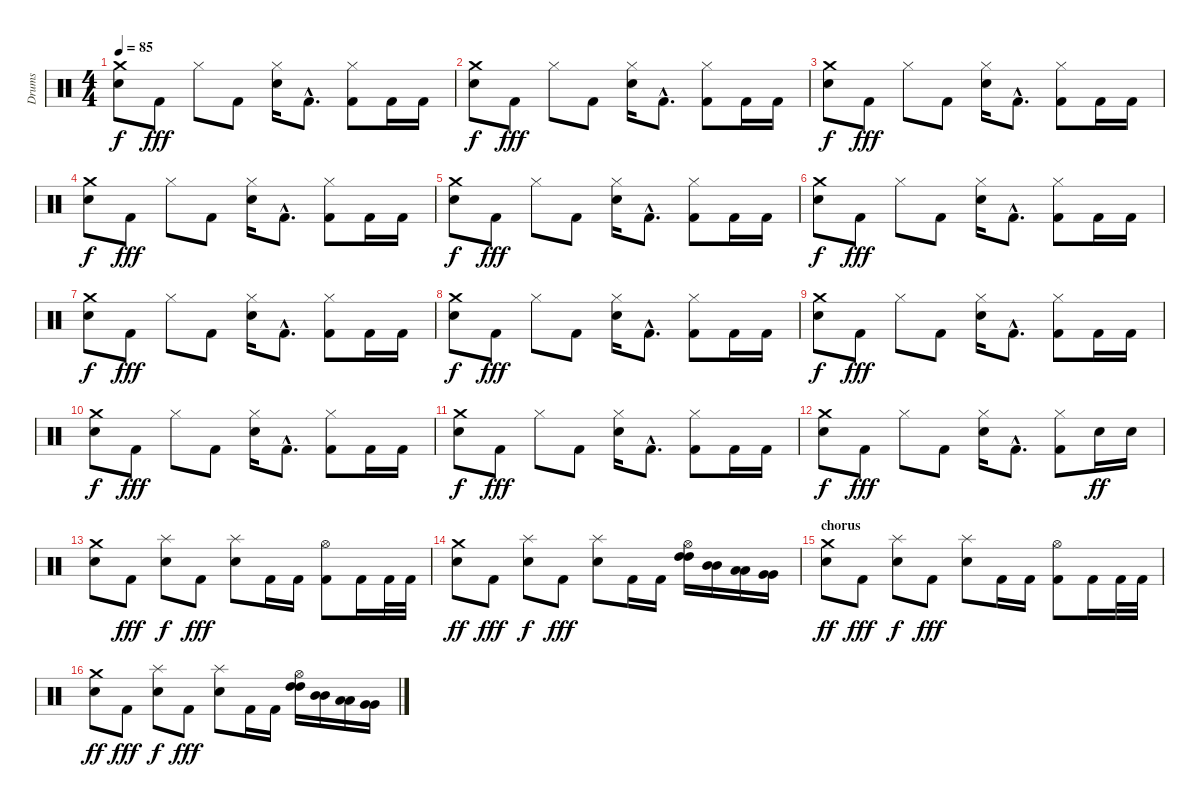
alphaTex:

\track ("Drums" "Drums") {instrument percussion}
\staff {score}
\articulation defaults
\ts (4 4)
\tempo 85
\clef neutral
\ks c
("Crash medium (hit)" "Electric Snare (hit)").8{dy f} "Kick (hit) 2".8{dy fff} "Hi-Hat (closed)".8 "Kick (hit) 2".8 ("Hi-Hat (closed)" "Electric Snare (hit)").16 "Kick (hit) 2"{hac}.8{d} ("Hi-Hat (closed)" "Kick (hit) 2").8 "Kick (hit) 2".16 "Kick (hit) 2".16 |
("Crash medium (hit)" "Electric Snare (hit)").8{dy f} "Kick (hit) 2".8{dy fff} "Hi-Hat (closed)".8 "Kick (hit) 2".8 ("Hi-Hat (closed)" "Electric Snare (hit)").16 "Kick (hit) 2"{hac}.8{d} ("Hi-Hat (closed)" "Kick (hit) 2").8 "Kick (hit) 2".16 "Kick (hit) 2".16 |
("Crash medium (hit)" "Electric Snare (hit)").8{dy f} "Kick (hit) 2".8{dy fff} "Hi-Hat (closed)".8 "Kick (hit) 2".8 ("Hi-Hat (closed)" "Electric Snare (hit)").16 "Kick (hit) 2"{hac}.8{d} ("Hi-Hat (closed)" "Kick (hit) 2").8 "Kick (hit) 2".16 "Kick (hit) 2".16 |
("Crash medium (hit)" "Electric Snare (hit)").8{dy f} "Kick (hit) 2".8{dy fff} "Hi-Hat (closed)".8 "Kick (hit) 2".8 ("Hi-Hat (closed)" "Electric Snare (hit)").16 "Kick (hit) 2"{hac}.8{d} ("Hi-Hat (closed)" "Kick (hit) 2").8 "Kick (hit) 2".16 "Kick (hit) 2".16 |
("Crash medium (hit)" "Electric Snare (hit)").8{dy f} "Kick (hit) 2".8{dy fff} "Hi-Hat (closed)".8 "Kick (hit) 2".8 ("Hi-Hat (closed)" "Electric Snare (hit)").16 "Kick (hit) 2"{hac}.8{d} ("Hi-Hat (closed)" "Kick (hit) 2").8 "Kick (hit) 2".16 "Kick (hit) 2".16 |
("Crash medium (hit)" "Electric Snare (hit)").8{dy f} "Kick (hit) 2".8{dy fff} "Hi-Hat (closed)".8 "Kick (hit) 2".8 ("Hi-Hat (closed)" "Electric Snare (hit)").16 "Kick (hit) 2"{hac}.8{d} ("Hi-Hat (closed)" "Kick (hit) 2").8 "Kick (hit) 2".16 "Kick (hit) 2".16 |
("Crash medium (hit)" "Electric Snare (hit)").8{dy f} "Kick (hit) 2".8{dy fff} "Hi-Hat (closed)".8 "Kick (hit) 2".8 ("Hi-Hat (closed)" "Electric Snare (hit)").16 "Kick (hit) 2"{hac}.8{d} ("Hi-Hat (closed)" "Kick (hit) 2").8 "Kick (hit) 2".16 "Kick (hit) 2".16 |
("Crash medium (hit)" "Electric Snare (hit)").8{dy f} "Kick (hit) 2".8{dy fff} "Hi-Hat (closed)".8 "Kick (hit) 2".8 ("Hi-Hat (closed)" "Electric Snare (hit)").16 "Kick (hit) 2"{hac}.8{d} ("Hi-Hat (closed)" "Kick (hit) 2").8 "Kick (hit) 2".16 "Kick (hit) 2".16 |
("Crash medium (hit)" "Electric Snare (hit)").8{dy f} "Kick (hit) 2".8{dy fff} "Hi-Hat (closed)".8 "Kick (hit) 2".8 ("Hi-Hat (closed)" "Electric Snare (hit)").16 "Kick (hit) 2"{hac}.8{d} ("Hi-Hat (closed)" "Kick (hit) 2").8 "Kick (hit) 2".16 "Kick (hit) 2".16 |
("Crash medium (hit)" "Electric Snare (hit)").8{dy f} "Kick (hit) 2".8{dy fff} "Hi-Hat (closed)".8 "Kick (hit) 2".8 ("Hi-Hat (closed)" "Electric Snare (hit)").16 "Kick (hit) 2"{hac}.8{d} ("Hi-Hat (closed)" "Kick (hit) 2").8 "Kick (hit) 2".16 "Kick (hit) 2".16 |
("Crash medium (hit)" "Electric Snare (hit)").8{dy f} "Kick (hit) 2".8{dy fff} "Hi-Hat (closed)".8 "Kick (hit) 2".8 ("Hi-Hat (closed)" "Electric Snare (hit)").16 "Kick (hit) 2"{hac}.8{d} ("Hi-Hat (closed)" "Kick (hit) 2").8 "Kick (hit) 2".16 "Kick (hit) 2".16 |
("Crash medium (hit)" "Electric Snare (hit)").8{dy f} "Kick (hit) 2".8{dy fff} "Hi-Hat (closed)".8 "Kick (hit) 2".8 ("Hi-Hat (closed)" "Electric Snare (hit)").16 "Kick (hit) 2"{hac}.8{d} ("Hi-Hat (closed)" "Kick (hit) 2").8 "Electric Snare (hit)".16{dy ff} "Electric Snare (hit)".16 |
("Electric Snare (hit)" "Crash medium (hit)").8 "Kick (hit) 2".8{dy fff} ("Splash (hit)" "Snare (hit) 2").8{dy f} "Kick (hit) 2".8{dy fff} ("Splash (hit)" "Electric Snare (hit)").8 "Kick (hit) 2".16 "Kick (hit) 2".16 ("Hi-Hat (open)" "Kick (hit) 2").8 "Kick (hit) 2".16 "Kick (hit) 2".32 "Kick (hit) 2".32 |
("Electric Snare (hit)" "Crash medium (hit)").8{dy ff} "Kick (hit) 2".8{dy fff} ("Splash (hit)" "Snare (hit) 2").8{dy f} "Kick (hit) 2".8{dy fff} ("Splash (hit)" "Electric Snare (hit)").8 "Kick (hit) 2".16 "Kick (hit) 2".16 ("Hi-Hat (open)" "High Tom (hit)" "High Tom (hit)").16 ("Mid Tom (hit)" "Mid Tom (hit)").16 ("Low Tom (hit)" "Low Tom (hit)").16 ("Very Low Tom (hit)" "Very Low Tom (hit)").16 |
\section ("" "chorus")
("Electric Snare (hit)" "Crash medium (hit)").8{dy ff} "Kick (hit) 2".8{dy fff} ("Splash (hit)" "Snare (hit) 2").8{dy f} "Kick (hit) 2".8{dy fff} ("Splash (hit)" "Electric Snare (hit)").8 "Kick (hit) 2".16 "Kick (hit) 2".16 ("Hi-Hat (open)" "Kick (hit) 2").8 "Kick (hit) 2".16 "Kick (hit) 2".32 "Kick (hit) 2".32 |
("Electric Snare (hit)" "Crash medium (hit)").8{dy ff} "Kick (hit) 2".8{dy fff} ("Splash (hit)" "Snare (hit) 2").8{dy f} "Kick (hit) 2".8{dy fff} ("Splash (hit)" "Electric Snare (hit)").8 "Kick (hit) 2".16 "Kick (hit) 2".16 ("Hi-Hat (open)" "High Tom (hit)" "High Tom (hit)").16 ("Mid Tom (hit)" "Mid Tom (hit)").16 ("Low Tom (hit)" "Low Tom (hit)").16 ("Very Low Tom (hit)" "Very Low Tom (hit)").16
